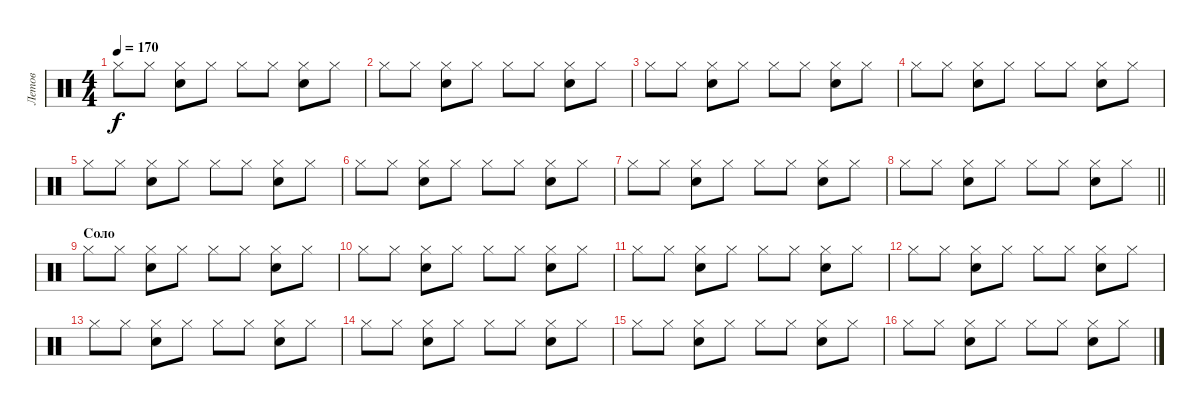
\track ("Летов" "Летов") {instrument percussion}
\staff {score}
\articulation defaults
\ts (4 4)
\tempo 170
\clef neutral
\ks c "Hi-Hat (closed)".8{dy f} "Hi-Hat (closed)".8
("Hi-Hat (closed)" "Electric Snare (hit)").8 "Hi-Hat (closed)".8 "Hi-Hat (closed)".8 "Hi-Hat (closed)".8 ("Hi-Hat (closed)" "Electric Snare (hit)").8 "Hi-Hat (closed)".8 |
"Hi-Hat (closed)".8 "Hi-Hat (closed)".8 ("Hi-Hat (closed)" "Electric Snare (hit)").8 "Hi-Hat (closed)".8 "Hi-Hat (closed)".8 "Hi-Hat (closed)".8 ("Hi-Hat (closed)" "Electric Snare (hit)").8 "Hi-Hat (closed)".8 |
"Hi-Hat (closed)".8 "Hi-Hat (closed)".8 ("Hi-Hat (closed)" "Electric Snare (hit)").8 "Hi-Hat (closed)".8 "Hi-Hat (closed)".8 "Hi-Hat (closed)".8 ("Hi-Hat (closed)" "Electric Snare (hit)").8 "Hi-Hat (closed)".8 |
"Hi-Hat (closed)".8 "Hi-Hat (closed)".8 ("Hi-Hat (closed)" "Electric Snare (hit)").8 "Hi-Hat (closed)".8 "Hi-Hat (closed)".8 "Hi-Hat (closed)".8 ("Hi-Hat (closed)" "Electric Snare (hit)").8 "Hi-Hat (closed)".8 |
"Hi-Hat (closed)".8 "Hi-Hat (closed)".8 ("Hi-Hat (closed)" "Electric Snare (hit)").8 "Hi-Hat (closed)".8 "Hi-Hat (closed)".8 "Hi-Hat (closed)".8 ("Hi-Hat (closed)" "Electric Snare (hit)").8 "Hi-Hat (closed)".8 |
"Hi-Hat (closed)".8 "Hi-Hat (closed)".8 ("Hi-Hat (closed)" "Electric Snare (hit)").8 "Hi-Hat (closed)".8 "Hi-Hat (closed)".8 "Hi-Hat (closed)".8 ("Hi-Hat (closed)" "Electric Snare (hit)").8 "Hi-Hat (closed)".8 |
"Hi-Hat (closed)".8 "Hi-Hat (closed)".8 ("Hi-Hat (closed)" "Electric Snare (hit)").8 "Hi-Hat (closed)".8 "Hi-Hat (closed)".8 "Hi-Hat (closed)".8 ("Hi-Hat (closed)" "Electric Snare (hit)").8 "Hi-Hat (closed)".8 |
\barLineRight lightlight "Hi-Hat (closed)".8 "Hi-Hat (closed)".8
("Hi-Hat (closed)" "Electric Snare (hit)").8 "Hi-Hat (closed)".8 "Hi-Hat (closed)".8 "Hi-Hat (closed)".8 ("Hi-Hat (closed)" "Electric Snare (hit)").8 "Hi-Hat (closed)".8 |
\section ("" "Соло")
"Hi-Hat (closed)".8 "Hi-Hat (closed)".8 ("Hi-Hat (closed)" "Electric Snare (hit)").8 "Hi-Hat (closed)".8 "Hi-Hat (closed)".8 "Hi-Hat (closed)".8 ("Hi-Hat (closed)" "Electric Snare (hit)").8 "Hi-Hat (closed)".8 |
"Hi-Hat (closed)".8 "Hi-Hat (closed)".8 ("Hi-Hat (closed)" "Electric Snare (hit)").8 "Hi-Hat (closed)".8 "Hi-Hat (closed)".8 "Hi-Hat (closed)".8 ("Hi-Hat (closed)" "Electric Snare (hit)").8 "Hi-Hat (closed)".8 |
"Hi-Hat (closed)".8 "Hi-Hat (closed)".8 ("Hi-Hat (closed)" "Electric Snare (hit)").8 "Hi-Hat (closed)".8 "Hi-Hat (closed)".8 "Hi-Hat (closed)".8 ("Hi-Hat (closed)" "Electric Snare (hit)").8 "Hi-Hat (closed)".8 |
"Hi-Hat (closed)".8 "Hi-Hat (closed)".8 ("Hi-Hat (closed)" "Electric Snare (hit)").8 "Hi-Hat (closed)".8 "Hi-Hat (closed)".8 "Hi-Hat (closed)".8 ("Hi-Hat (closed)" "Electric Snare (hit)").8 "Hi-Hat (closed)".8 |
"Hi-Hat (closed)".8 "Hi-Hat (closed)".8 ("Hi-Hat (closed)" "Electric Snare (hit)").8 "Hi-Hat (closed)".8 "Hi-Hat (closed)".8 "Hi-Hat (closed)".8 ("Hi-Hat (closed)" "Electric Snare (hit)").8 "Hi-Hat (closed)".8 |
"Hi-Hat (closed)".8 "Hi-Hat (closed)".8 ("Hi-Hat (closed)" "Electric Snare (hit)").8 "Hi-Hat (closed)".8 "Hi-Hat (closed)".8 "Hi-Hat (closed)".8 ("Hi-Hat (closed)" "Electric Snare (hit)").8 "Hi-Hat (closed)".8 |
"Hi-Hat (closed)".8 "Hi-Hat (closed)".8 ("Hi-Hat (closed)" "Electric Snare (hit)").8 "Hi-Hat (closed)".8 "Hi-Hat (closed)".8 "Hi-Hat (closed)".8 ("Hi-Hat (closed)" "Electric Snare (hit)").8 "Hi-Hat (closed)".8 |
"Hi-Hat (closed)".8 "Hi-Hat (closed)".8 ("Hi-Hat (closed)" "Electric Snare (hit)").8 "Hi-Hat (closed)".8 "Hi-Hat (closed)".8 "Hi-Hat (closed)".8 ("Hi-Hat (closed)" "Electric Snare (hit)").8 "Hi-Hat (closed)".8
